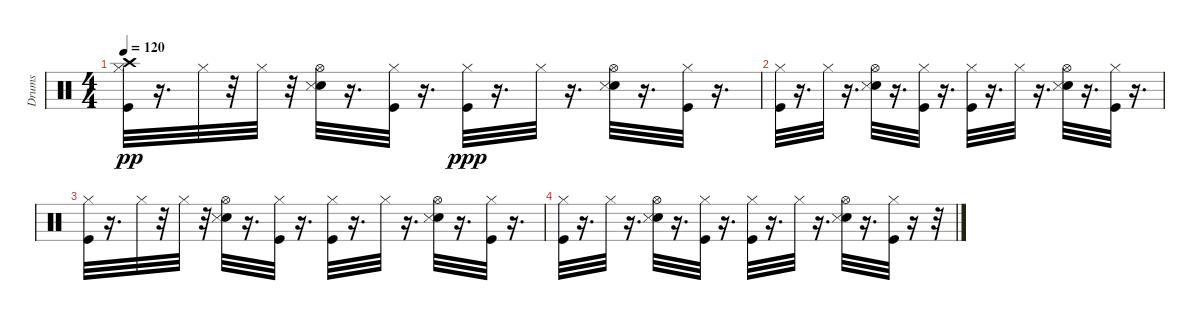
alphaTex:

\track ("Drums" "Drums") {instrument percussion}
\staff {score}
\articulation defaults
\ts (4 4)
\tempo 120
\clef neutral
\ks c
("Crash high (hit)" "Hi-Hat (closed)" "Kick (hit)").32{dy pp} r.16{d} "Hi-Hat (closed)".32 r.32 "Hi-Hat (closed)".32 r.32 ("Snare (hit) 2" "Hi-Hat (open)" "Snare (side stick) 3").32 r.16{d} ("Hi-Hat (closed)" "Kick (hit)").32 r.16{d} ("Hi-Hat (closed)" "Kick (hit)").32{dy ppp} r.16{d} "Hi-Hat (closed)".32 r.16{d} ("Snare (hit) 2" "Hi-Hat (open)" "Snare (side stick) 3").32 r.16{d} ("Kick (hit)" "Hi-Hat (closed)").32 r.16{d} |
("Hi-Hat (closed)" "Kick (hit)").32 r.16{d} "Hi-Hat (closed)".32 r.16{d} ("Snare (hit) 2" "Hi-Hat (open)" "Snare (side stick) 3").32 r.16{d} ("Hi-Hat (closed)" "Kick (hit)").32 r.16{d} ("Hi-Hat (closed)" "Kick (hit)").32 r.16{d} "Hi-Hat (closed)".32 r.16{d} ("Snare (hit) 2" "Hi-Hat (open)" "Snare (side stick) 3").32 r.16{d} ("Kick (hit)" "Hi-Hat (closed)").32 r.16{d} |
("Hi-Hat (closed)" "Kick (hit)").32 r.16{d} "Hi-Hat (closed)".32 r.32 "Hi-Hat (closed)".32 r.32 ("Snare (hit) 2" "Hi-Hat (open)" "Snare (side stick) 3").32 r.16{d} ("Hi-Hat (closed)" "Kick (hit)").32 r.16{d} ("Hi-Hat (closed)" "Kick (hit)").32 r.16{d} "Hi-Hat (closed)".32 r.16{d} ("Snare (hit) 2" "Hi-Hat (open)" "Snare (side stick) 3").32 r.16{d} ("Kick (hit)" "Hi-Hat (closed)").32 r.16{d} |
("Hi-Hat (closed)" "Kick (hit)").32 r.16{d} "Hi-Hat (closed)".32 r.16{d} ("Snare (hit) 2" "Hi-Hat (open)" "Snare (side stick) 3").32 r.16{d} ("Hi-Hat (closed)" "Kick (hit)").32 r.16{d} ("Hi-Hat (closed)" "Kick (hit)").32 r.16{d} "Hi-Hat (closed)".32 r.16{d} ("Snare (hit) 2" "Hi-Hat (open)" "Snare (side stick) 3").32 r.16{d} ("Kick (hit)" "Hi-Hat (closed)").32 r.16 r.32
